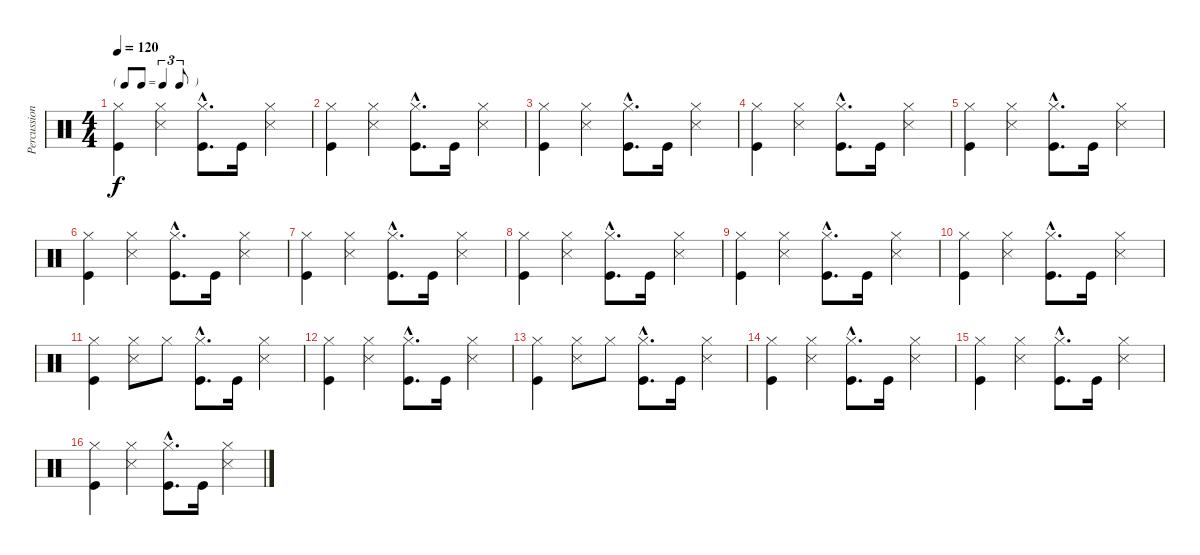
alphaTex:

\track ("Percussion" "Percussion") {instrument percussion}
\staff {score}
\articulation defaults
\ts (4 4)
\tf triplet8th
\tempo 120
\clef neutral
\ks c
("Hi-Hat (closed)" "Kick (hit)").4{dy f} ("Hi-Hat (closed)" "Snare (side stick) 3").4 ("Hi-Hat (closed)"{hac} "Kick (hit)"{hac}).8{d} "Kick (hit)".16 ("Hi-Hat (closed)" "Snare (side stick) 3").4 |
("Hi-Hat (closed)" "Kick (hit)").4 ("Hi-Hat (closed)" "Snare (side stick) 3").4 ("Hi-Hat (closed)"{hac} "Kick (hit)"{hac}).8{d} "Kick (hit)".16 ("Hi-Hat (closed)" "Snare (side stick) 3").4 |
("Hi-Hat (closed)" "Kick (hit)").4 ("Hi-Hat (closed)" "Snare (side stick) 3").4 ("Hi-Hat (closed)"{hac} "Kick (hit)"{hac}).8{d} "Kick (hit)".16 ("Hi-Hat (closed)" "Snare (side stick) 3").4 |
("Hi-Hat (closed)" "Kick (hit)").4 ("Hi-Hat (closed)" "Snare (side stick) 3").4 ("Hi-Hat (closed)"{hac} "Kick (hit)"{hac}).8{d} "Kick (hit)".16 ("Hi-Hat (closed)" "Snare (side stick) 3").4 |
("Hi-Hat (closed)" "Kick (hit)").4 ("Hi-Hat (closed)" "Snare (side stick) 3").4 ("Hi-Hat (closed)"{hac} "Kick (hit)"{hac}).8{d} "Kick (hit)".16 ("Hi-Hat (closed)" "Snare (side stick) 3").4 |
("Hi-Hat (closed)" "Kick (hit)").4 ("Hi-Hat (closed)" "Snare (side stick) 3").4 ("Hi-Hat (closed)"{hac} "Kick (hit)"{hac}).8{d} "Kick (hit)".16 ("Hi-Hat (closed)" "Snare (side stick) 3").4 |
("Hi-Hat (closed)" "Kick (hit)").4 ("Hi-Hat (closed)" "Snare (side stick) 3").4 ("Hi-Hat (closed)"{hac} "Kick (hit)"{hac}).8{d} "Kick (hit)".16 ("Hi-Hat (closed)" "Snare (side stick) 3").4 |
("Hi-Hat (closed)" "Kick (hit)").4 ("Hi-Hat (closed)" "Snare (side stick) 3").4 ("Hi-Hat (closed)"{hac} "Kick (hit)"{hac}).8{d} "Kick (hit)".16 ("Hi-Hat (closed)" "Snare (side stick) 3").4 |
("Hi-Hat (closed)" "Kick (hit)").4 ("Hi-Hat (closed)" "Snare (side stick) 3").4 ("Hi-Hat (closed)"{hac} "Kick (hit)"{hac}).8{d} "Kick (hit)".16 ("Hi-Hat (closed)" "Snare (side stick) 3").4 |
("Hi-Hat (closed)" "Kick (hit)").4 ("Hi-Hat (closed)" "Snare (side stick) 3").4 ("Hi-Hat (closed)"{hac} "Kick (hit)"{hac}).8{d} "Kick (hit)".16 ("Hi-Hat (closed)" "Snare (side stick) 3").4 |
("Hi-Hat (closed)" "Kick (hit)").4 ("Hi-Hat (closed)" "Snare (side stick) 3").8 "Hi-Hat (closed)".8 ("Hi-Hat (closed)"{hac} "Kick (hit)"{hac}).8{d} "Kick (hit)".16 ("Hi-Hat (closed)" "Snare (side stick) 3").4 |
("Hi-Hat (closed)" "Kick (hit)").4 ("Hi-Hat (closed)" "Snare (side stick) 3").4 ("Hi-Hat (closed)"{hac} "Kick (hit)"{hac}).8{d} "Kick (hit)".16 ("Hi-Hat (closed)" "Snare (side stick) 3").4 |
("Hi-Hat (closed)" "Kick (hit)").4 ("Hi-Hat (closed)" "Snare (side stick) 3").8 "Hi-Hat (closed)".8 ("Hi-Hat (closed)"{hac} "Kick (hit)"{hac}).8{d} "Kick (hit)".16 ("Hi-Hat (closed)" "Snare (side stick) 3").4 |
("Hi-Hat (closed)" "Kick (hit)").4 ("Hi-Hat (closed)" "Snare (side stick) 3").4 ("Hi-Hat (closed)"{hac} "Kick (hit)"{hac}).8{d} "Kick (hit)".16 ("Hi-Hat (closed)" "Snare (side stick) 3").4 |
("Hi-Hat (closed)" "Kick (hit)").4 ("Hi-Hat (closed)" "Snare (side stick) 3").4 ("Hi-Hat (closed)"{hac} "Kick (hit)"{hac}).8{d} "Kick (hit)".16 ("Hi-Hat (closed)" "Snare (side stick) 3").4 |
("Hi-Hat (closed)" "Kick (hit)").4 ("Hi-Hat (closed)" "Snare (side stick) 3").4 ("Hi-Hat (closed)"{hac} "Kick (hit)"{hac}).8{d} "Kick (hit)".16 ("Hi-Hat (closed)" "Snare (side stick) 3").4
